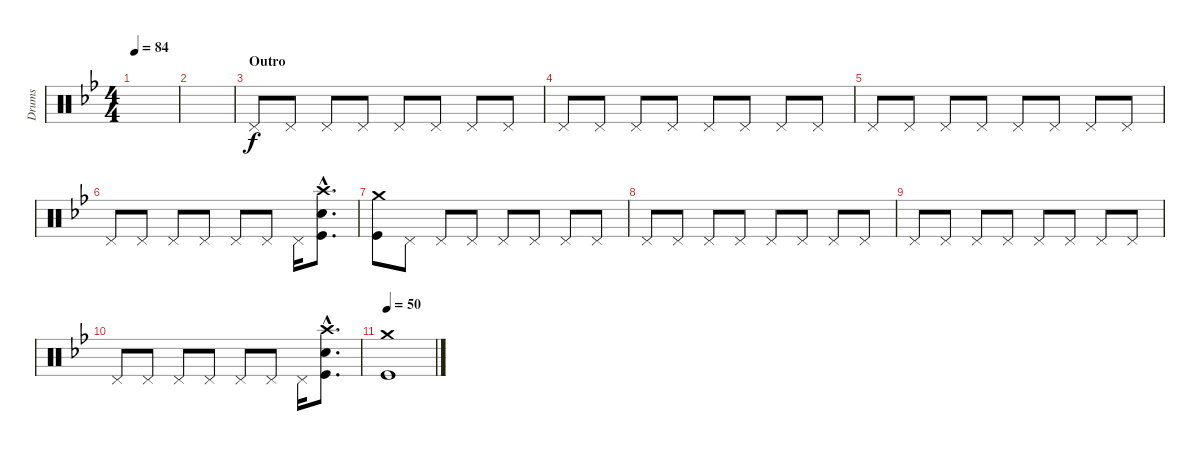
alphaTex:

\track ("Drums" "Drums") {instrument percussion}
\staff {score}
\articulation defaults
\ts (4 4)
\tempo 84
\clef neutral
\ks bb
|
|
\section ("" "Outro")
"Pedal Hi-Hat (hit)".8{volume 10} "Pedal Hi-Hat (hit)".8 "Pedal Hi-Hat (hit)".8 "Pedal Hi-Hat (hit)".8 "Pedal Hi-Hat (hit)".8 "Pedal Hi-Hat (hit)".8 "Pedal Hi-Hat (hit)".8 "Pedal Hi-Hat (hit)".8 |
"Pedal Hi-Hat (hit)".8 "Pedal Hi-Hat (hit)".8 "Pedal Hi-Hat (hit)".8 "Pedal Hi-Hat (hit)".8 "Pedal Hi-Hat (hit)".8 "Pedal Hi-Hat (hit)".8 "Pedal Hi-Hat (hit)".8 "Pedal Hi-Hat (hit)".8 |
"Pedal Hi-Hat (hit)".8 "Pedal Hi-Hat (hit)".8 "Pedal Hi-Hat (hit)".8 "Pedal Hi-Hat (hit)".8 "Pedal Hi-Hat (hit)".8 "Pedal Hi-Hat (hit)".8 "Pedal Hi-Hat (hit)".8 "Pedal Hi-Hat (hit)".8 |
"Pedal Hi-Hat (hit)".8 "Pedal Hi-Hat (hit)".8 "Pedal Hi-Hat (hit)".8 "Pedal Hi-Hat (hit)".8 "Pedal Hi-Hat (hit)".8 "Pedal Hi-Hat (hit)".8 "Pedal Hi-Hat (hit)".16 ("Crash high (hit)"{hac} "Electric Snare (hit)"{hac} "Kick (hit)"{hac}).8{d volume 13} |
("Crash medium (hit)" "Kick (hit)").8 "Pedal Hi-Hat (hit)".8{volume 10} "Pedal Hi-Hat (hit)".8 "Pedal Hi-Hat (hit)".8 "Pedal Hi-Hat (hit)".8 "Pedal Hi-Hat (hit)".8 "Pedal Hi-Hat (hit)".8 "Pedal Hi-Hat (hit)".8 |
"Pedal Hi-Hat (hit)".8 "Pedal Hi-Hat (hit)".8 "Pedal Hi-Hat (hit)".8 "Pedal Hi-Hat (hit)".8 "Pedal Hi-Hat (hit)".8 "Pedal Hi-Hat (hit)".8 "Pedal Hi-Hat (hit)".8 "Pedal Hi-Hat (hit)".8 |
"Pedal Hi-Hat (hit)".8 "Pedal Hi-Hat (hit)".8 "Pedal Hi-Hat (hit)".8 "Pedal Hi-Hat (hit)".8 "Pedal Hi-Hat (hit)".8 "Pedal Hi-Hat (hit)".8 "Pedal Hi-Hat (hit)".8 "Pedal Hi-Hat (hit)".8 |
"Pedal Hi-Hat (hit)".8 "Pedal Hi-Hat (hit)".8 "Pedal Hi-Hat (hit)".8 "Pedal Hi-Hat (hit)".8 "Pedal Hi-Hat (hit)".8 "Pedal Hi-Hat (hit)".8 "Pedal Hi-Hat (hit)".16 ("Crash high (hit)"{hac} "Electric Snare (hit)"{hac} "Kick (hit)"{hac}).8{d volume 13} |
\tempo 50
("Crash medium (hit)" "Kick (hit)").1
